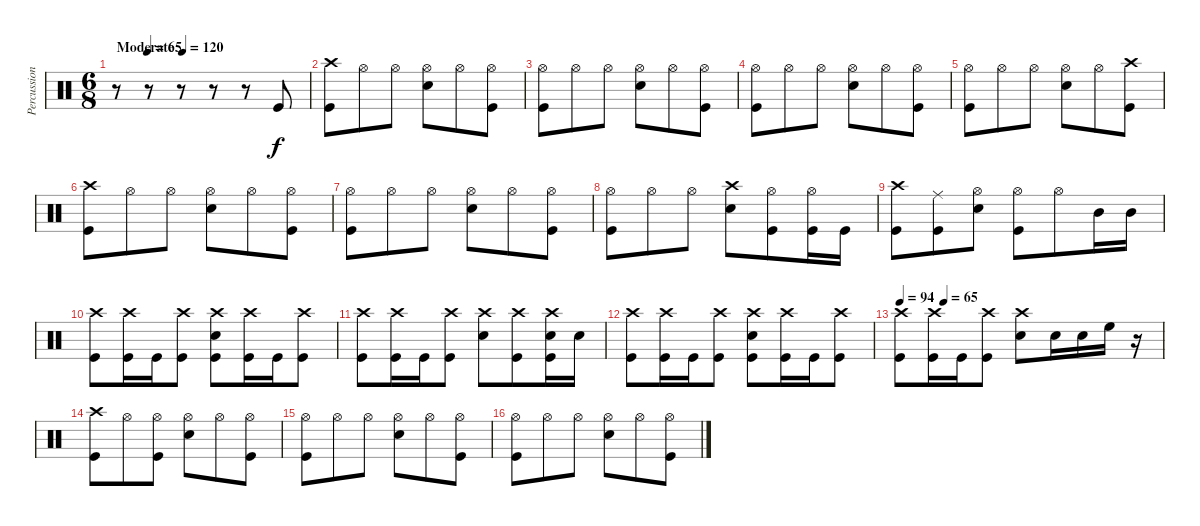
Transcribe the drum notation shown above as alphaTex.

\track ("Percussioni" "Percussion") {instrument percussion}
\staff {score}
\articulation defaults
\ts (6 8)
\tempo (120 "Moderate")
\tempo (65 0.16666666666666666)
\tempo 94
\tempo (120 "Moderate")
\clef neutral
\ks c
r.8{dy f} r.8 r.8 r.8 r.8 "Kick (hit)".8 |
("Crash high (hit)" "Kick (hit)").8 "Hi-Hat (open)".8 "Hi-Hat (open)".8 ("Snare (hit) 2" "Hi-Hat (open)").8 "Hi-Hat (open)".8 ("Hi-Hat (open)" "Kick (hit)").8 |
("Hi-Hat (open)" "Kick (hit)").8 "Hi-Hat (open)".8 "Hi-Hat (open)".8 ("Snare (hit) 2" "Hi-Hat (open)").8 "Hi-Hat (open)".8 ("Hi-Hat (open)" "Kick (hit)").8 |
("Hi-Hat (open)" "Kick (hit)").8 "Hi-Hat (open)".8 "Hi-Hat (open)".8 ("Snare (hit) 2" "Hi-Hat (open)").8 "Hi-Hat (open)".8 ("Hi-Hat (open)" "Kick (hit)").8 |
("Hi-Hat (open)" "Kick (hit)").8 "Hi-Hat (open)".8 "Hi-Hat (open)".8 ("Snare (hit) 2" "Hi-Hat (open)").8 "Hi-Hat (open)".8 ("Crash high (hit)" "Kick (hit)").8 |
("Crash high (hit)" "Kick (hit)").8 "Hi-Hat (open)".8 "Hi-Hat (open)".8 ("Snare (hit) 2" "Hi-Hat (open)").8 "Hi-Hat (open)".8 ("Hi-Hat (open)" "Kick (hit)").8 |
("Hi-Hat (open)" "Kick (hit)").8 "Hi-Hat (open)".8 "Hi-Hat (open)".8 ("Snare (hit) 2" "Hi-Hat (open)").8 "Hi-Hat (open)".8 ("Hi-Hat (open)" "Kick (hit)").8 |
("Hi-Hat (open)" "Kick (hit)").8 "Hi-Hat (open)".8 "Hi-Hat (open)".8 ("Crash high (hit)" "Snare (hit) 2").8 ("Hi-Hat (open)" "Kick (hit)").8 ("Hi-Hat (open)" "Kick (hit)").16 "Kick (hit)".16 |
("Crash high (hit)" "Kick (hit)").8 ("Ride (middle)" "Kick (hit)").8 ("Hi-Hat (open)" "Snare (hit) 2").8 ("Hi-Hat (open)" "Kick (hit)").8 "Hi-Hat (open)".8 "Mid Tom (hit)".16 "Mid Tom (hit)".16 |
("Kick (hit)" "Crash high (hit)").8 ("Kick (hit)" "Crash high (hit)").16 "Kick (hit)".16 ("Kick (hit)" "Crash high (hit)").8 ("Kick (hit)" "Snare (hit) 2" "Crash high (hit)").8 ("Kick (hit)" "Crash high (hit)").16 "Kick (hit)".16 ("Kick (hit)" "Crash high (hit)").8 |
("Kick (hit)" "Crash high (hit)").8 ("Kick (hit)" "Crash high (hit)").16 "Kick (hit)".16 ("Kick (hit)" "Crash high (hit)").8 ("Snare (hit) 2" "Crash high (hit)").8 ("Crash high (hit)" "Kick (hit)").8 ("Crash high (hit)" "Kick (hit)" "Snare (hit) 2").16 "Snare (hit) 2".16 |
("Kick (hit)" "Crash high (hit)").8 ("Kick (hit)" "Crash high (hit)").16 "Kick (hit)".16 ("Kick (hit)" "Crash high (hit)").8 ("Kick (hit)" "Snare (hit) 2" "Crash high (hit)").8 ("Kick (hit)" "Crash high (hit)").16 "Kick (hit)".16 ("Kick (hit)" "Crash high (hit)").8 |
\tempo (65 0.16666666666666666)
\tempo 94
("Kick (hit)" "Crash high (hit)").8 ("Kick (hit)" "Crash high (hit)").16 "Kick (hit)".16 ("Kick (hit)" "Crash high (hit)").8 ("Snare (hit) 2" "Crash high (hit)").8 "Snare (hit) 2".16 "Snare (hit) 2".16 "High Floor Tom (hit)".16 r.16 |
("Crash high (hit)" "Kick (hit)").8 "Hi-Hat (open)".8 ("Hi-Hat (open)" "Kick (hit)").8 ("Snare (hit) 2" "Hi-Hat (open)").8 "Hi-Hat (open)".8 ("Hi-Hat (open)" "Kick (hit)").8 |
("Hi-Hat (open)" "Kick (hit)").8 "Hi-Hat (open)".8 "Hi-Hat (open)".8 ("Snare (hit) 2" "Hi-Hat (open)").8 "Hi-Hat (open)".8 ("Hi-Hat (open)" "Kick (hit)").8 |
("Hi-Hat (open)" "Kick (hit)").8 "Hi-Hat (open)".8 "Hi-Hat (open)".8 ("Snare (hit) 2" "Hi-Hat (open)").8 "Hi-Hat (open)".8 ("Hi-Hat (open)" "Kick (hit)").8
